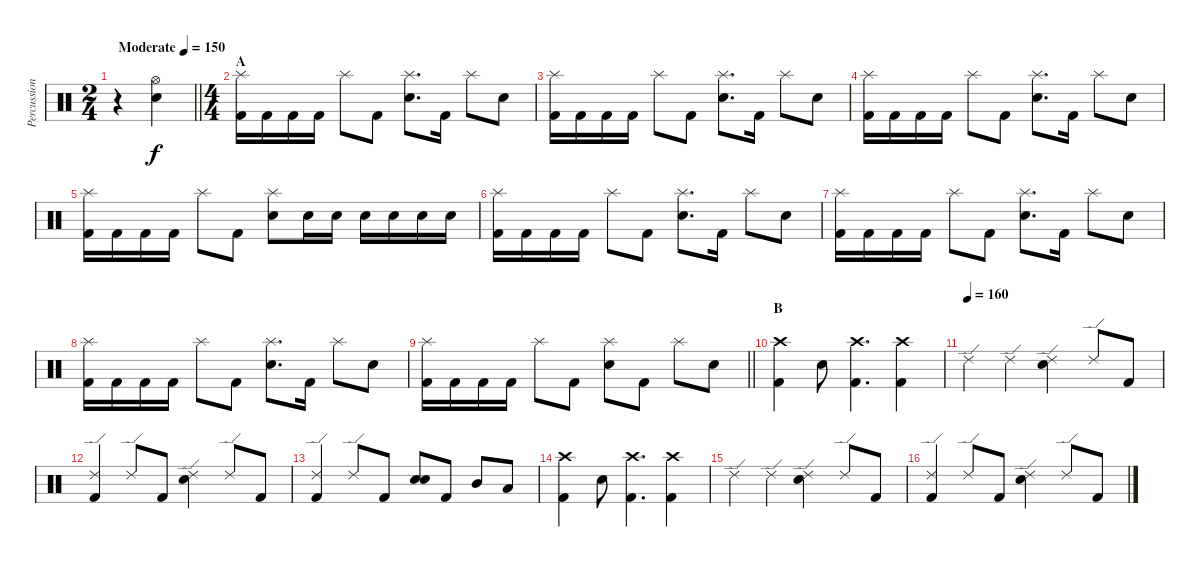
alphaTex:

\track ("Percussion" "Percussion") {instrument percussion}
\staff {score}
\articulation defaults
\ts (2 4)
\tempo (150 "Moderate")
\clef neutral
\barLineRight lightlight
\ks c
r.4{dy f} ("Hi-Hat (open)" "Electric Snare (hit)").4 |
\ts (4 4)
\section ("" "A")
("Splash (hit)" "Kick (hit) 2").16 "Kick (hit) 2".16 "Kick (hit) 2".16 "Kick (hit) 2".16 "Splash (hit)".8 "Kick (hit) 2".8 ("Splash (hit)" "Electric Snare (hit)").8{d} "Kick (hit) 2".16 "Splash (hit)".8 "Electric Snare (hit)".8 |
("Splash (hit)" "Kick (hit) 2").16 "Kick (hit) 2".16 "Kick (hit) 2".16 "Kick (hit) 2".16 "Splash (hit)".8 "Kick (hit) 2".8 ("Splash (hit)" "Electric Snare (hit)").8{d} "Kick (hit) 2".16 "Splash (hit)".8 "Electric Snare (hit)".8 |
("Splash (hit)" "Kick (hit) 2").16 "Kick (hit) 2".16 "Kick (hit) 2".16 "Kick (hit) 2".16 "Splash (hit)".8 "Kick (hit) 2".8 ("Splash (hit)" "Electric Snare (hit)").8{d} "Kick (hit) 2".16 "Splash (hit)".8 "Electric Snare (hit)".8 |
("Splash (hit)" "Kick (hit) 2").16 "Kick (hit) 2".16 "Kick (hit) 2".16 "Kick (hit) 2".16 "Splash (hit)".8 "Kick (hit) 2".8 ("Splash (hit)" "Electric Snare (hit)").8 "Electric Snare (hit)".16 "Electric Snare (hit)".16 "Electric Snare (hit)".16 "Electric Snare (hit)".16 "Electric Snare (hit)".16 "Electric Snare (hit)".16 |
("Splash (hit)" "Kick (hit) 2").16 "Kick (hit) 2".16 "Kick (hit) 2".16 "Kick (hit) 2".16 "Splash (hit)".8 "Kick (hit) 2".8 ("Splash (hit)" "Electric Snare (hit)").8{d} "Kick (hit) 2".16 "Splash (hit)".8 "Electric Snare (hit)".8 |
("Splash (hit)" "Kick (hit) 2").16 "Kick (hit) 2".16 "Kick (hit) 2".16 "Kick (hit) 2".16 "Splash (hit)".8 "Kick (hit) 2".8 ("Splash (hit)" "Electric Snare (hit)").8{d} "Kick (hit) 2".16 "Splash (hit)".8 "Electric Snare (hit)".8 |
("Splash (hit)" "Kick (hit) 2").16 "Kick (hit) 2".16 "Kick (hit) 2".16 "Kick (hit) 2".16 "Splash (hit)".8 "Kick (hit) 2".8 ("Splash (hit)" "Electric Snare (hit)").8{d} "Kick (hit) 2".16 "Splash (hit)".8 "Electric Snare (hit)".8 |
\barLineRight lightlight
("Splash (hit)" "Kick (hit) 2").16 "Kick (hit) 2".16 "Kick (hit) 2".16 "Kick (hit) 2".16 "Splash (hit)".8 "Kick (hit) 2".8 ("Splash (hit)" "Electric Snare (hit)").8 "Kick (hit) 2".8 "Splash (hit)".8 "Electric Snare (hit)".8 |
\section ("" "B")
("Crash high (hit)" "Kick (hit) 2").4 "Electric Snare (hit)".8 ("Crash high (hit)" "Kick (hit) 2").4{d} ("Crash high (hit)" "Kick (hit) 2").4 |
\tempo (160)
"Ride (edge) 2".4 "Ride (edge) 2".4 ("Ride (edge) 2" "Electric Snare (hit)").4 "Ride (edge) 2".8 "Kick (hit) 2".8 |
("Ride (edge) 2" "Kick (hit) 2").4 "Ride (edge) 2".8 "Kick (hit) 2".8 ("Ride (edge) 2" "Electric Snare (hit)").4 "Ride (edge) 2".8 "Kick (hit) 2".8 |
("Ride (edge) 2" "Kick (hit) 2").4 "Ride (edge) 2".8 "Kick (hit) 2".8 ("Electric Snare (hit)" "Electric Snare (hit)").8{bd 120} "Kick (hit) 2".8 "Mid Tom (hit)".8 "Low Tom (hit)".8 |
("Crash high (hit)" "Kick (hit) 2").4 "Electric Snare (hit)".8 ("Crash high (hit)" "Kick (hit) 2").4{d} ("Crash high (hit)" "Kick (hit) 2").4 |
"Ride (edge) 2".4 "Ride (edge) 2".4 ("Ride (edge) 2" "Electric Snare (hit)").4 "Ride (edge) 2".8 "Kick (hit) 2".8 |
("Ride (edge) 2" "Kick (hit) 2").4 "Ride (edge) 2".8 "Kick (hit) 2".8 ("Ride (edge) 2" "Electric Snare (hit)").4 "Ride (edge) 2".8 "Kick (hit) 2".8
